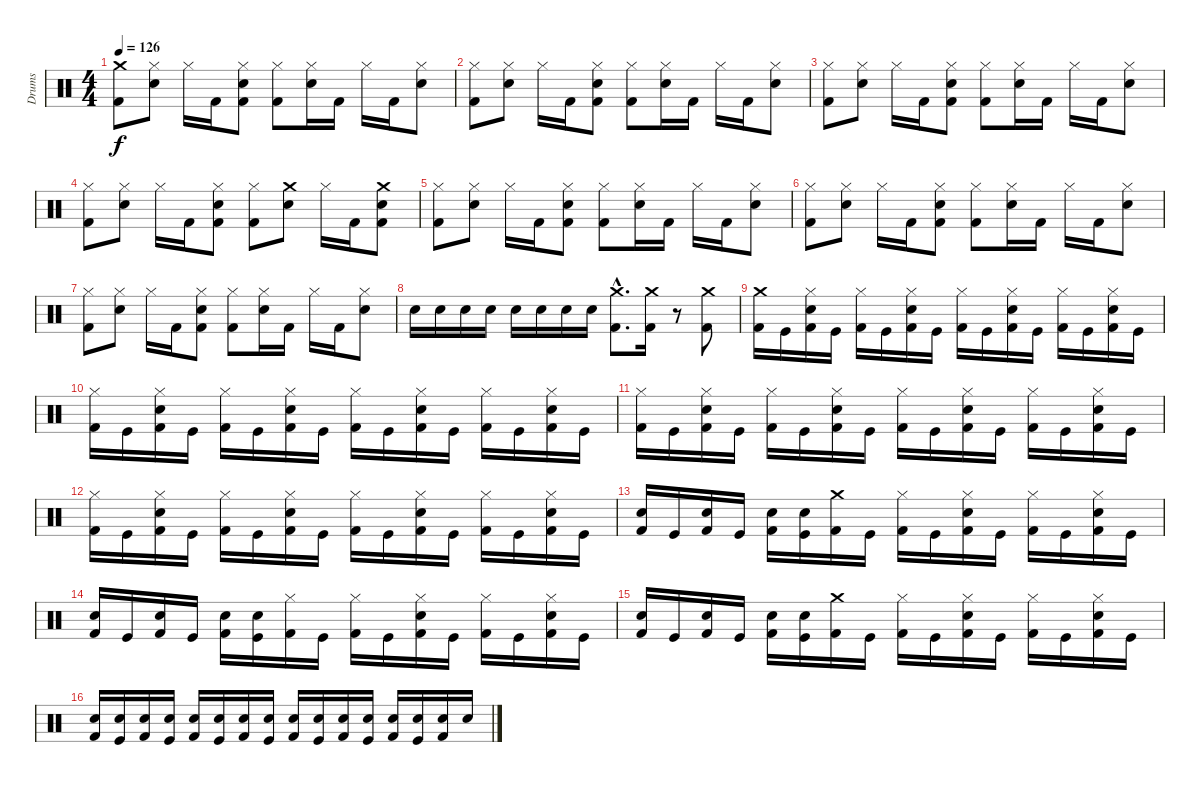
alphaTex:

\track ("Drums" "Drums") {instrument percussion}
\staff {score}
\articulation defaults
\ts (4 4)
\tempo 126
\clef neutral
\ks c
("Kick (hit) 2" "Crash medium (hit)").8{dy f} ("Snare (hit) 2" "Hi-Hat (closed)").8 "Hi-Hat (closed)".16 "Kick (hit) 2".16 ("Kick (hit) 2" "Snare (hit) 2" "Hi-Hat (closed)").8 ("Kick (hit) 2" "Hi-Hat (closed)").8 ("Snare (hit) 2" "Hi-Hat (closed)").16 "Kick (hit) 2".16 "Hi-Hat (closed)".16 "Kick (hit) 2".16 ("Snare (hit) 2" "Hi-Hat (closed)").8 |
("Hi-Hat (closed)" "Kick (hit) 2").8 ("Snare (hit) 2" "Hi-Hat (closed)").8 "Hi-Hat (closed)".16 "Kick (hit) 2".16 ("Kick (hit) 2" "Snare (hit) 2" "Hi-Hat (closed)").8 ("Kick (hit) 2" "Hi-Hat (closed)").8 ("Snare (hit) 2" "Hi-Hat (closed)").16 "Kick (hit) 2".16 "Hi-Hat (closed)".16 "Kick (hit) 2".16 ("Snare (hit) 2" "Hi-Hat (closed)").8 |
("Hi-Hat (closed)" "Kick (hit) 2").8 ("Snare (hit) 2" "Hi-Hat (closed)").8 "Hi-Hat (closed)".16 "Kick (hit) 2".16 ("Snare (hit) 2" "Hi-Hat (closed)" "Kick (hit) 2").8 ("Hi-Hat (closed)" "Kick (hit) 2").8 ("Snare (hit) 2" "Hi-Hat (closed)").16 "Kick (hit) 2".16 "Hi-Hat (closed)".16 "Kick (hit) 2".16 ("Snare (hit) 2" "Hi-Hat (closed)").8 |
("Hi-Hat (closed)" "Kick (hit) 2").8 ("Snare (hit) 2" "Hi-Hat (closed)").8 "Hi-Hat (closed)".16 "Kick (hit) 2".16 ("Kick (hit) 2" "Snare (hit) 2" "Hi-Hat (closed)").8 ("Hi-Hat (closed)" "Kick (hit) 2").8 ("Crash medium (hit)" "Snare (hit) 2").8 "Hi-Hat (closed)".16 "Kick (hit) 2".16 ("Kick (hit) 2" "Crash medium (hit)" "Snare (hit) 2").8 |
("Hi-Hat (closed)" "Kick (hit) 2").8 ("Snare (hit) 2" "Hi-Hat (closed)").8 "Hi-Hat (closed)".16 "Kick (hit) 2".16 ("Kick (hit) 2" "Snare (hit) 2" "Hi-Hat (closed)").8 ("Kick (hit) 2" "Hi-Hat (closed)").8 ("Snare (hit) 2" "Hi-Hat (closed)").16 "Kick (hit) 2".16 "Hi-Hat (closed)".16 "Kick (hit) 2".16 ("Snare (hit) 2" "Hi-Hat (closed)").8 |
("Hi-Hat (closed)" "Kick (hit) 2").8 ("Snare (hit) 2" "Hi-Hat (closed)").8 "Hi-Hat (closed)".16 "Kick (hit) 2".16 ("Kick (hit) 2" "Snare (hit) 2" "Hi-Hat (closed)").8 ("Kick (hit) 2" "Hi-Hat (closed)").8 ("Snare (hit) 2" "Hi-Hat (closed)").16 "Kick (hit) 2".16 "Hi-Hat (closed)".16 "Kick (hit) 2".16 ("Snare (hit) 2" "Hi-Hat (closed)").8 |
("Hi-Hat (closed)" "Kick (hit) 2").8 ("Snare (hit) 2" "Hi-Hat (closed)").8 "Hi-Hat (closed)".16 "Kick (hit) 2".16 ("Kick (hit) 2" "Snare (hit) 2" "Hi-Hat (closed)").8 ("Kick (hit) 2" "Hi-Hat (closed)").8 ("Snare (hit) 2" "Hi-Hat (closed)").16 "Kick (hit) 2".16 "Hi-Hat (closed)".16 "Kick (hit) 2".16 ("Snare (hit) 2" "Hi-Hat (closed)").8 |
"Snare (hit) 2".16 "Snare (hit) 2".16 "Snare (hit) 2".16 "Snare (hit) 2".16 "Snare (hit) 2".16 "Snare (hit) 2".16 "Snare (hit) 2".16 "Snare (hit) 2".16 ("Crash medium (hit)"{hac} "Kick (hit) 2"{hac}).8{d} ("Crash medium (hit)" "Kick (hit) 2").16 r.8 ("Crash medium (hit)" "Kick (hit) 2").8 |
("Crash medium (hit)" "Kick (hit) 2").16 "Kick (hit)".16 ("Snare (hit) 2" "Hi-Hat (closed)" "Kick (hit) 2").16 "Kick (hit)".16 ("Hi-Hat (closed)" "Kick (hit) 2").16 "Kick (hit)".16 ("Snare (hit) 2" "Hi-Hat (closed)" "Kick (hit) 2").16 "Kick (hit)".16 ("Hi-Hat (closed)" "Kick (hit) 2").16 "Kick (hit)".16 ("Snare (hit) 2" "Hi-Hat (closed)" "Kick (hit) 2").16 "Kick (hit)".16 ("Hi-Hat (closed)" "Kick (hit) 2").16 "Kick (hit)".16 ("Snare (hit) 2" "Hi-Hat (closed)" "Kick (hit) 2").16 "Kick (hit)".16 |
("Hi-Hat (closed)" "Kick (hit) 2").16 "Kick (hit)".16 ("Snare (hit) 2" "Hi-Hat (closed)" "Kick (hit) 2").16 "Kick (hit)".16 ("Hi-Hat (closed)" "Kick (hit) 2").16 "Kick (hit)".16 ("Snare (hit) 2" "Hi-Hat (closed)" "Kick (hit) 2").16 "Kick (hit)".16 ("Hi-Hat (closed)" "Kick (hit) 2").16 "Kick (hit)".16 ("Snare (hit) 2" "Hi-Hat (closed)" "Kick (hit) 2").16 "Kick (hit)".16 ("Hi-Hat (closed)" "Kick (hit) 2").16 "Kick (hit)".16 ("Snare (hit) 2" "Hi-Hat (closed)" "Kick (hit) 2").16 "Kick (hit)".16 |
("Hi-Hat (closed)" "Kick (hit) 2").16 "Kick (hit)".16 ("Snare (hit) 2" "Hi-Hat (closed)" "Kick (hit) 2").16 "Kick (hit)".16 ("Hi-Hat (closed)" "Kick (hit) 2").16 "Kick (hit)".16 ("Snare (hit) 2" "Hi-Hat (closed)" "Kick (hit) 2").16 "Kick (hit)".16 ("Hi-Hat (closed)" "Kick (hit) 2").16 "Kick (hit)".16 ("Snare (hit) 2" "Hi-Hat (closed)" "Kick (hit) 2").16 "Kick (hit)".16 ("Hi-Hat (closed)" "Kick (hit) 2").16 "Kick (hit)".16 ("Snare (hit) 2" "Hi-Hat (closed)" "Kick (hit) 2").16 "Kick (hit)".16 |
("Hi-Hat (closed)" "Kick (hit) 2").16 "Kick (hit)".16 ("Snare (hit) 2" "Hi-Hat (closed)" "Kick (hit) 2").16 "Kick (hit)".16 ("Hi-Hat (closed)" "Kick (hit) 2").16 "Kick (hit)".16 ("Snare (hit) 2" "Hi-Hat (closed)" "Kick (hit) 2").16 "Kick (hit)".16 ("Hi-Hat (closed)" "Kick (hit) 2").16 "Kick (hit)".16 ("Snare (hit) 2" "Hi-Hat (closed)" "Kick (hit) 2").16 "Kick (hit)".16 ("Hi-Hat (closed)" "Kick (hit) 2").16 "Kick (hit)".16 ("Snare (hit) 2" "Hi-Hat (closed)" "Kick (hit) 2").16 "Kick (hit)".16 |
("Snare (hit) 2" "Kick (hit) 2").16 "Kick (hit)".16 ("Snare (hit) 2" "Kick (hit) 2").16 "Kick (hit)".16 ("Snare (hit) 2" "Kick (hit) 2").16 ("Snare (hit) 2" "Kick (hit)").16 ("Crash medium (hit)" "Kick (hit) 2").16 "Kick (hit)".16 ("Hi-Hat (closed)" "Kick (hit) 2").16 "Kick (hit)".16 ("Snare (hit) 2" "Hi-Hat (closed)" "Kick (hit) 2").16 "Kick (hit)".16 ("Hi-Hat (closed)" "Kick (hit) 2").16 "Kick (hit)".16 ("Snare (hit) 2" "Hi-Hat (closed)" "Kick (hit) 2").16 "Kick (hit)".16 |
("Snare (hit) 2" "Kick (hit) 2").16 "Kick (hit)".16 ("Snare (hit) 2" "Kick (hit) 2").16 "Kick (hit)".16 ("Snare (hit) 2" "Kick (hit) 2").16 ("Snare (hit) 2" "Kick (hit)").16 ("Hi-Hat (closed)" "Kick (hit) 2").16 "Kick (hit)".16 ("Hi-Hat (closed)" "Kick (hit) 2").16 "Kick (hit)".16 ("Snare (hit) 2" "Hi-Hat (closed)" "Kick (hit) 2").16 "Kick (hit)".16 ("Hi-Hat (closed)" "Kick (hit) 2").16 "Kick (hit)".16 ("Snare (hit) 2" "Hi-Hat (closed)" "Kick (hit) 2").16 "Kick (hit)".16 |
("Snare (hit) 2" "Kick (hit) 2").16 "Kick (hit)".16 ("Snare (hit) 2" "Kick (hit) 2").16 "Kick (hit)".16 ("Snare (hit) 2" "Kick (hit) 2").16 ("Snare (hit) 2" "Kick (hit)").16 ("Crash medium (hit)" "Kick (hit) 2").16 "Kick (hit)".16 ("Hi-Hat (closed)" "Kick (hit) 2").16 "Kick (hit)".16 ("Snare (hit) 2" "Hi-Hat (closed)" "Kick (hit) 2").16 "Kick (hit)".16 ("Hi-Hat (closed)" "Kick (hit) 2").16 "Kick (hit)".16 ("Snare (hit) 2" "Hi-Hat (closed)" "Kick (hit) 2").16 "Kick (hit)".16 |
("Snare (hit) 2" "Kick (hit) 2").16 ("Snare (hit) 2" "Kick (hit)").16 ("Snare (hit) 2" "Kick (hit) 2").16 ("Snare (hit) 2" "Kick (hit)").16 ("Snare (hit) 2" "Kick (hit) 2").16 ("Snare (hit) 2" "Kick (hit)").16 ("Snare (hit) 2" "Kick (hit) 2").16 ("Snare (hit) 2" "Kick (hit)").16 ("Snare (hit) 2" "Kick (hit) 2").16 ("Snare (hit) 2" "Kick (hit)").16 ("Snare (hit) 2" "Kick (hit) 2").16 ("Snare (hit) 2" "Kick (hit)").16 ("Snare (hit) 2" "Kick (hit) 2").16 ("Snare (hit) 2" "Kick (hit)").16 ("Snare (hit) 2" "Kick (hit) 2").16 "Snare (hit) 2".16
